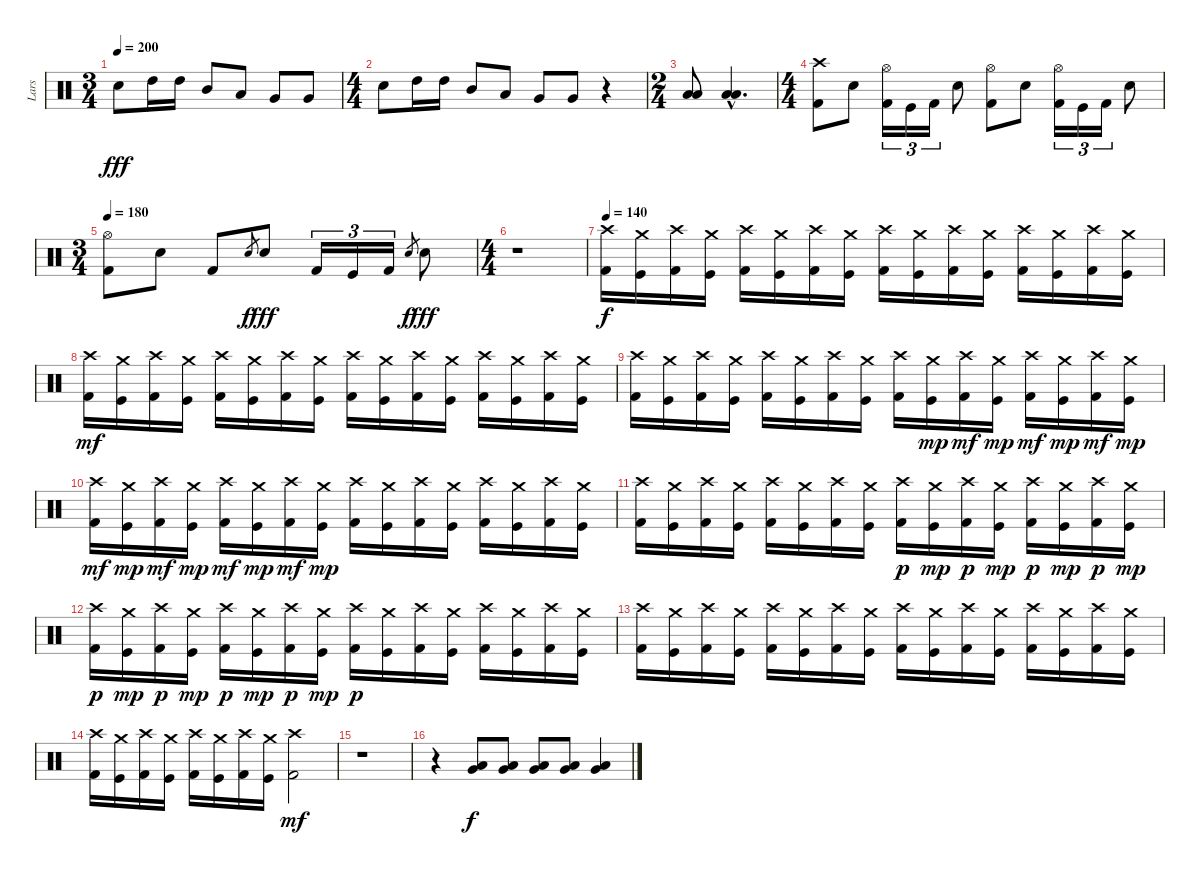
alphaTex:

\track ("Lars" "Lars") {instrument percussion}
\staff {score}
\articulation defaults
\ts (3 4)
\tempo 200
\clef neutral
\ks c "Snare (hit) 2".8{dy fff} "High Tom (hit)".16 "High Tom (hit)".16 "Mid Tom (hit)".8 "Low Tom (hit)".8 "Very Low Tom (hit)".8 "Very Low Tom (hit)".8
|
\ts (4 4)
"Snare (hit) 2".8 "High Tom (hit)".16 "High Tom (hit)".16 "Mid Tom (hit)".8 "Low Tom (hit)".8 "Very Low Tom (hit)".8 "Very Low Tom (hit)".8 r.4 |
\ts (2 4)
("Low Tom (hit)" "Low Floor Tom (hit)").8 ("Low Tom (hit)"{hac} "Low Floor Tom (hit)"{hac}).4{d} |
\ts (4 4)
("Crash high (hit)" "Kick (hit) 2").8 "Snare (hit) 2".8 ("Hi-Hat (open)" "Kick (hit) 2").16{tu (3 2)} "Kick (hit)".16{tu (3 2)} "Kick (hit) 2".16{tu (3 2)} "Snare (hit) 2".8 ("Hi-Hat (open)" "Kick (hit) 2").8 "Snare (hit) 2".8 ("Hi-Hat (open)" "Kick (hit) 2").16{tu (3 2)} "Kick (hit)".16{tu (3 2)} "Kick (hit) 2".16{tu (3 2)} "Snare (hit) 2".8 |
\ts (3 4)
\tempo 180
("Hi-Hat (open)" "Kick (hit) 2").8 "Snare (hit) 2".8 "Kick (hit) 2".8 "Snare (hit) 2".8{gr dy f} "Snare (hit) 2".8{dy fff} "Kick (hit) 2".16{tu (3 2)} "Kick (hit)".16{tu (3 2)} "Kick (hit) 2".16{tu (3 2)} "Snare (hit) 2".8{gr dy f} "Snare (hit) 2".8{dy fff} |
\ts (4 4)
r.1 |
\tempo 140
("Crash high (hit)" "Kick (hit) 2").16{dy f} ("Crash medium (hit)" "Kick (hit)").16 ("Crash high (hit)" "Kick (hit) 2").16 ("Crash medium (hit)" "Kick (hit)").16 ("Crash high (hit)" "Kick (hit) 2").16 ("Crash medium (hit)" "Kick (hit)").16 ("Crash high (hit)" "Kick (hit) 2").16 ("Crash medium (hit)" "Kick (hit)").16 ("Crash high (hit)" "Kick (hit) 2").16 ("Crash medium (hit)" "Kick (hit)").16 ("Crash high (hit)" "Kick (hit) 2").16 ("Crash medium (hit)" "Kick (hit)").16 ("Crash high (hit)" "Kick (hit) 2").16 ("Crash medium (hit)" "Kick (hit)").16 ("Crash high (hit)" "Kick (hit) 2").16 ("Crash medium (hit)" "Kick (hit)").16 |
("Crash high (hit)" "Kick (hit) 2").16{dy mf} ("Crash medium (hit)" "Kick (hit)").16 ("Crash high (hit)" "Kick (hit) 2").16 ("Crash medium (hit)" "Kick (hit)").16 ("Crash high (hit)" "Kick (hit) 2").16 ("Crash medium (hit)" "Kick (hit)").16 ("Crash high (hit)" "Kick (hit) 2").16 ("Crash medium (hit)" "Kick (hit)").16 ("Crash high (hit)" "Kick (hit) 2").16 ("Crash medium (hit)" "Kick (hit)").16 ("Crash high (hit)" "Kick (hit) 2").16 ("Crash medium (hit)" "Kick (hit)").16 ("Crash high (hit)" "Kick (hit) 2").16 ("Crash medium (hit)" "Kick (hit)").16 ("Crash high (hit)" "Kick (hit) 2").16 ("Crash medium (hit)" "Kick (hit)").16 |
("Crash high (hit)" "Kick (hit) 2").16 ("Crash medium (hit)" "Kick (hit)").16 ("Crash high (hit)" "Kick (hit) 2").16 ("Crash medium (hit)" "Kick (hit)").16 ("Crash high (hit)" "Kick (hit) 2").16 ("Crash medium (hit)" "Kick (hit)").16 ("Crash high (hit)" "Kick (hit) 2").16 ("Crash medium (hit)" "Kick (hit)").16 ("Crash high (hit)" "Kick (hit) 2").16 ("Crash medium (hit)" "Kick (hit)").16{dy mp} ("Crash high (hit)" "Kick (hit) 2").16{dy mf} ("Crash medium (hit)" "Kick (hit)").16{dy mp} ("Crash high (hit)" "Kick (hit) 2").16{dy mf} ("Crash medium (hit)" "Kick (hit)").16{dy mp} ("Crash high (hit)" "Kick (hit) 2").16{dy mf} ("Crash medium (hit)" "Kick (hit)").16{dy mp} |
("Crash high (hit)" "Kick (hit) 2").16{dy mf} ("Crash medium (hit)" "Kick (hit)").16{dy mp} ("Crash high (hit)" "Kick (hit) 2").16{dy mf} ("Crash medium (hit)" "Kick (hit)").16{dy mp} ("Crash high (hit)" "Kick (hit) 2").16{dy mf} ("Crash medium (hit)" "Kick (hit)").16{dy mp} ("Crash high (hit)" "Kick (hit) 2").16{dy mf} ("Crash medium (hit)" "Kick (hit)").16{dy mp} ("Crash high (hit)" "Kick (hit) 2").16 ("Crash medium (hit)" "Kick (hit)").16 ("Crash high (hit)" "Kick (hit) 2").16 ("Crash medium (hit)" "Kick (hit)").16 ("Crash high (hit)" "Kick (hit) 2").16 ("Crash medium (hit)" "Kick (hit)").16 ("Crash high (hit)" "Kick (hit) 2").16 ("Crash medium (hit)" "Kick (hit)").16 |
("Crash high (hit)" "Kick (hit) 2").16 ("Crash medium (hit)" "Kick (hit)").16 ("Crash high (hit)" "Kick (hit) 2").16 ("Crash medium (hit)" "Kick (hit)").16 ("Crash high (hit)" "Kick (hit) 2").16 ("Crash medium (hit)" "Kick (hit)").16 ("Crash high (hit)" "Kick (hit) 2").16 ("Crash medium (hit)" "Kick (hit)").16 ("Crash high (hit)" "Kick (hit) 2").16{dy p} ("Crash medium (hit)" "Kick (hit)").16{dy mp} ("Crash high (hit)" "Kick (hit) 2").16{dy p} ("Crash medium (hit)" "Kick (hit)").16{dy mp} ("Crash high (hit)" "Kick (hit) 2").16{dy p} ("Crash medium (hit)" "Kick (hit)").16{dy mp} ("Crash high (hit)" "Kick (hit) 2").16{dy p} ("Crash medium (hit)" "Kick (hit)").16{dy mp} |
("Crash high (hit)" "Kick (hit) 2").16{dy p} ("Crash medium (hit)" "Kick (hit)").16{dy mp} ("Crash high (hit)" "Kick (hit) 2").16{dy p} ("Crash medium (hit)" "Kick (hit)").16{dy mp} ("Crash high (hit)" "Kick (hit) 2").16{dy p} ("Crash medium (hit)" "Kick (hit)").16{dy mp} ("Crash high (hit)" "Kick (hit) 2").16{dy p} ("Crash medium (hit)" "Kick (hit)").16{dy mp} ("Crash high (hit)" "Kick (hit) 2").16{dy p} ("Crash medium (hit)" "Kick (hit)").16 ("Crash high (hit)" "Kick (hit) 2").16 ("Crash medium (hit)" "Kick (hit)").16 ("Crash high (hit)" "Kick (hit) 2").16 ("Crash medium (hit)" "Kick (hit)").16 ("Crash high (hit)" "Kick (hit) 2").16 ("Crash medium (hit)" "Kick (hit)").16 |
("Crash high (hit)" "Kick (hit) 2").16 ("Crash medium (hit)" "Kick (hit)").16 ("Crash high (hit)" "Kick (hit) 2").16 ("Crash medium (hit)" "Kick (hit)").16 ("Crash high (hit)" "Kick (hit) 2").16 ("Crash medium (hit)" "Kick (hit)").16 ("Crash high (hit)" "Kick (hit) 2").16 ("Crash medium (hit)" "Kick (hit)").16 ("Crash high (hit)" "Kick (hit) 2").16 ("Crash medium (hit)" "Kick (hit)").16 ("Crash high (hit)" "Kick (hit) 2").16 ("Crash medium (hit)" "Kick (hit)").16 ("Crash high (hit)" "Kick (hit) 2").16 ("Crash medium (hit)" "Kick (hit)").16 ("Crash high (hit)" "Kick (hit) 2").16 ("Crash medium (hit)" "Kick (hit)").16 |
("Crash high (hit)" "Kick (hit) 2").16 ("Crash medium (hit)" "Kick (hit)").16 ("Crash high (hit)" "Kick (hit) 2").16 ("Crash medium (hit)" "Kick (hit)").16 ("Crash high (hit)" "Kick (hit) 2").16 ("Crash medium (hit)" "Kick (hit)").16 ("Crash high (hit)" "Kick (hit) 2").16 ("Crash medium (hit)" "Kick (hit)").16 ("Crash high (hit)" "Kick (hit) 2").2{dy mf} |
r.1 |
r.4 ("Low Tom (hit)" "Very Low Tom (hit)").8{dy f} ("Low Tom (hit)" "Very Low Tom (hit)").8 ("Low Tom (hit)" "Very Low Tom (hit)").8 ("Low Tom (hit)" "Very Low Tom (hit)").8 ("Low Tom (hit)" "Very Low Tom (hit)").4
